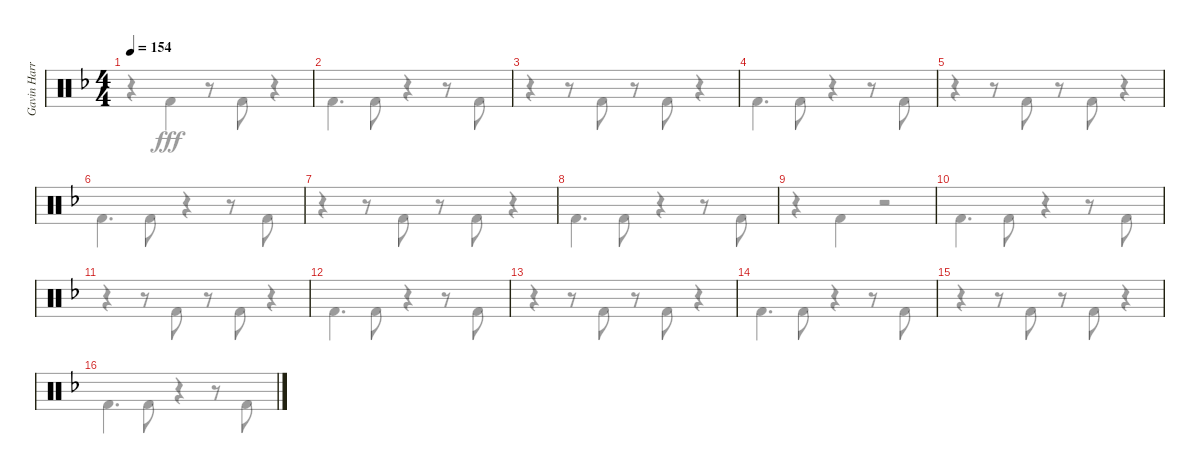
\track ("Gavin Harrison Bass Pedal" "Gavin Harr") {instrument percussion}
\staff {score}
\articulation defaults
\voice
\ts (4 4)
\tempo 154
\clef neutral
\ks dminor
|
|
|
|
|
|
|
|
|
|
|
|
|
|
|
\voice
\clef neutral
\ks dminor
r.4{dy fff} "Kick (hit) 2".4 r.8 "Kick (hit) 2".8 r.4 |
"Kick (hit) 2".4{d} "Kick (hit) 2".8 r.4 r.8 "Kick (hit) 2".8 |
r.4 r.8 "Kick (hit) 2".8 r.8 "Kick (hit) 2".8 r.4 |
"Kick (hit) 2".4{d} "Kick (hit) 2".8 r.4 r.8 "Kick (hit) 2".8 |
r.4 r.8 "Kick (hit) 2".8 r.8 "Kick (hit) 2".8 r.4 |
"Kick (hit) 2".4{d} "Kick (hit) 2".8 r.4 r.8 "Kick (hit) 2".8 |
r.4 r.8 "Kick (hit) 2".8 r.8 "Kick (hit) 2".8 r.4 |
"Kick (hit) 2".4{d} "Kick (hit) 2".8 r.4 r.8 "Kick (hit) 2".8 |
r.4 "Kick (hit) 2".4 r.2 |
"Kick (hit) 2".4{d} "Kick (hit) 2".8 r.4 r.8 "Kick (hit) 2".8 |
r.4 r.8 "Kick (hit) 2".8 r.8 "Kick (hit) 2".8 r.4 |
"Kick (hit) 2".4{d} "Kick (hit) 2".8 r.4 r.8 "Kick (hit) 2".8 |
r.4 r.8 "Kick (hit) 2".8 r.8 "Kick (hit) 2".8 r.4 |
"Kick (hit) 2".4{d} "Kick (hit) 2".8 r.4 r.8 "Kick (hit) 2".8 |
r.4 r.8 "Kick (hit) 2".8 r.8 "Kick (hit) 2".8 r.4 |
"Kick (hit) 2".4{d} "Kick (hit) 2".8 r.4 r.8 "Kick (hit) 2".8
